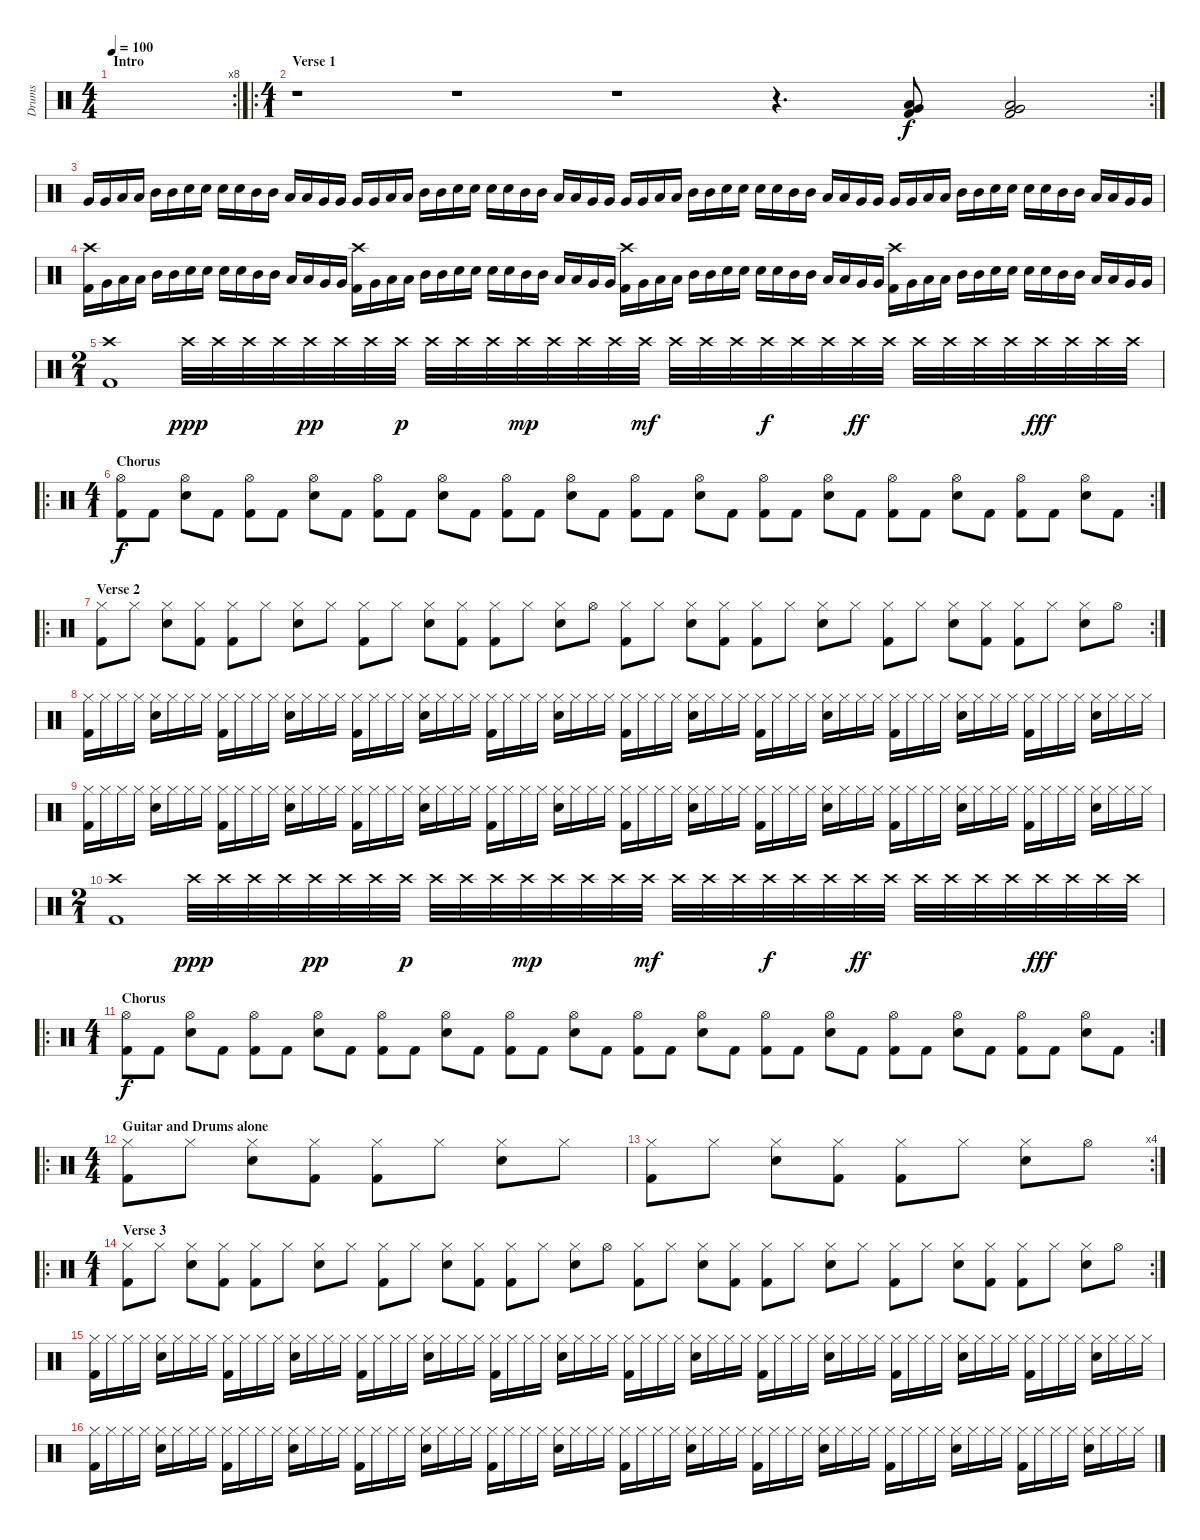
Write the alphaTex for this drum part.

\track ("Drums" "Drums") {instrument percussion}
\staff {score}
\articulation defaults
\rc 8
\ts (4 4)
\section ("" "Intro")
\tempo 100
\clef neutral
\ks c
|
\ro
\rc 2
\ts (4 1)
\section ("" "Verse 1")
r.1 r.1 r.1 r.4{d} ("Kick (hit) 2" "Very Low Tom (hit)" "Low Floor Tom (hit)").8 ("Kick (hit) 2" "Very Low Tom (hit)" "Low Floor Tom (hit)").2 |
"Very Low Tom (hit)".16 "Very Low Tom (hit)".16 "Low Tom (hit)".16 "Low Tom (hit)".16 "Mid Tom (hit)".16 "Mid Tom (hit)".16 "Electric Snare (hit)".16 "Electric Snare (hit)".16 "Electric Snare (hit)".16 "Electric Snare (hit)".16 "Mid Tom (hit)".16 "Mid Tom (hit)".16 "Low Tom (hit)".16 "Low Tom (hit)".16 "Very Low Tom (hit)".16 "Very Low Tom (hit)".16 "Very Low Tom (hit)".16 "Very Low Tom (hit)".16 "Low Tom (hit)".16 "Low Tom (hit)".16 "Mid Tom (hit)".16 "Mid Tom (hit)".16 "Electric Snare (hit)".16 "Electric Snare (hit)".16 "Electric Snare (hit)".16 "Electric Snare (hit)".16 "Mid Tom (hit)".16 "Mid Tom (hit)".16 "Low Tom (hit)".16 "Low Tom (hit)".16 "Very Low Tom (hit)".16 "Very Low Tom (hit)".16 "Very Low Tom (hit)".16 "Very Low Tom (hit)".16 "Low Tom (hit)".16 "Low Tom (hit)".16 "Mid Tom (hit)".16 "Mid Tom (hit)".16 "Electric Snare (hit)".16 "Electric Snare (hit)".16 "Electric Snare (hit)".16 "Electric Snare (hit)".16 "Mid Tom (hit)".16 "Mid Tom (hit)".16 "Low Tom (hit)".16 "Low Tom (hit)".16 "Very Low Tom (hit)".16 "Very Low Tom (hit)".16 "Very Low Tom (hit)".16 "Very Low Tom (hit)".16 "Low Tom (hit)".16 "Low Tom (hit)".16 "Mid Tom (hit)".16 "Mid Tom (hit)".16 "Electric Snare (hit)".16 "Electric Snare (hit)".16 "Electric Snare (hit)".16 "Electric Snare (hit)".16 "Mid Tom (hit)".16 "Mid Tom (hit)".16 "Low Tom (hit)".16 "Low Tom (hit)".16 "Very Low Tom (hit)".16 "Very Low Tom (hit)".16 |
("Crash high (hit)" "Kick (hit) 2").16 "Very Low Tom (hit)".16 "Low Tom (hit)".16 "Low Tom (hit)".16 "Mid Tom (hit)".16 "Mid Tom (hit)".16 "Electric Snare (hit)".16 "Electric Snare (hit)".16 "Electric Snare (hit)".16 "Electric Snare (hit)".16 "Mid Tom (hit)".16 "Mid Tom (hit)".16 "Low Tom (hit)".16 "Low Tom (hit)".16 "Very Low Tom (hit)".16 "Very Low Tom (hit)".16 ("Crash high (hit)" "Kick (hit) 2").16 "Very Low Tom (hit)".16 "Low Tom (hit)".16 "Low Tom (hit)".16 "Mid Tom (hit)".16 "Mid Tom (hit)".16 "Electric Snare (hit)".16 "Electric Snare (hit)".16 "Electric Snare (hit)".16 "Electric Snare (hit)".16 "Mid Tom (hit)".16 "Mid Tom (hit)".16 "Low Tom (hit)".16 "Low Tom (hit)".16 "Very Low Tom (hit)".16 "Very Low Tom (hit)".16 ("Crash high (hit)" "Kick (hit) 2").16 "Very Low Tom (hit)".16 "Low Tom (hit)".16 "Low Tom (hit)".16 "Mid Tom (hit)".16 "Mid Tom (hit)".16 "Electric Snare (hit)".16 "Electric Snare (hit)".16 "Electric Snare (hit)".16 "Electric Snare (hit)".16 "Mid Tom (hit)".16 "Mid Tom (hit)".16 "Low Tom (hit)".16 "Low Tom (hit)".16 "Very Low Tom (hit)".16 "Very Low Tom (hit)".16 ("Crash high (hit)" "Kick (hit) 2").16 "Very Low Tom (hit)".16 "Low Tom (hit)".16 "Low Tom (hit)".16 "Mid Tom (hit)".16 "Mid Tom (hit)".16 "Electric Snare (hit)".16 "Electric Snare (hit)".16 "Electric Snare (hit)".16 "Electric Snare (hit)".16 "Mid Tom (hit)".16 "Mid Tom (hit)".16 "Low Tom (hit)".16 "Low Tom (hit)".16 "Very Low Tom (hit)".16 "Very Low Tom (hit)".16 |
\ts (2 1)
("Crash high (hit)" "Kick (hit) 2").1 "Crash high (hit)".32{dy ppp} "Crash high (hit)".32 "Crash high (hit)".32 "Crash high (hit)".32 "Crash high (hit)".32{dy pp} "Crash high (hit)".32 "Crash high (hit)".32 "Crash high (hit)".32{dy p} "Crash high (hit)".32 "Crash high (hit)".32 "Crash high (hit)".32 "Crash high (hit)".32{dy mp} "Crash high (hit)".32 "Crash high (hit)".32 "Crash high (hit)".32 "Crash high (hit)".32{dy mf} "Crash high (hit)".32 "Crash high (hit)".32 "Crash high (hit)".32 "Crash high (hit)".32{dy f} "Crash high (hit)".32 "Crash high (hit)".32 "Crash high (hit)".32{dy ff} "Crash high (hit)".32 "Crash high (hit)".32 "Crash high (hit)".32 "Crash high (hit)".32 "Crash high (hit)".32 "Crash high (hit)".32{dy fff} "Crash high (hit)".32 "Crash high (hit)".32 "Crash high (hit)".32 |
\ro
\rc 2
\ts (4 1)
\section ("" "Chorus")
("Hi-Hat (open)" "Kick (hit) 2").8{dy f} "Kick (hit) 2".8 ("Hi-Hat (open)" "Electric Snare (hit)").8 "Kick (hit) 2".8 ("Hi-Hat (open)" "Kick (hit) 2").8 "Kick (hit) 2".8 ("Hi-Hat (open)" "Electric Snare (hit)").8 "Kick (hit) 2".8 ("Hi-Hat (open)" "Kick (hit) 2").8 "Kick (hit) 2".8 ("Hi-Hat (open)" "Electric Snare (hit)").8 "Kick (hit) 2".8 ("Hi-Hat (open)" "Kick (hit) 2").8 "Kick (hit) 2".8 ("Hi-Hat (open)" "Electric Snare (hit)").8 "Kick (hit) 2".8 ("Hi-Hat (open)" "Kick (hit) 2").8 "Kick (hit) 2".8 ("Hi-Hat (open)" "Electric Snare (hit)").8 "Kick (hit) 2".8 ("Hi-Hat (open)" "Kick (hit) 2").8 "Kick (hit) 2".8 ("Hi-Hat (open)" "Electric Snare (hit)").8 "Kick (hit) 2".8 ("Hi-Hat (open)" "Kick (hit) 2").8 "Kick (hit) 2".8 ("Hi-Hat (open)" "Electric Snare (hit)").8 "Kick (hit) 2".8 ("Hi-Hat (open)" "Kick (hit) 2").8 "Kick (hit) 2".8 ("Hi-Hat (open)" "Electric Snare (hit)").8 "Kick (hit) 2".8 |
\ro
\rc 2
\section ("" "Verse 2")
("Hi-Hat (closed)" "Kick (hit) 2").8 "Hi-Hat (closed)".8 ("Hi-Hat (closed)" "Electric Snare (hit)").8 ("Hi-Hat (closed)" "Kick (hit) 2").8 ("Hi-Hat (closed)" "Kick (hit) 2").8 "Hi-Hat (closed)".8 ("Hi-Hat (closed)" "Electric Snare (hit)").8 "Hi-Hat (closed)".8 ("Hi-Hat (closed)" "Kick (hit) 2").8 "Hi-Hat (closed)".8 ("Hi-Hat (closed)" "Electric Snare (hit)").8 ("Hi-Hat (closed)" "Kick (hit) 2").8 ("Hi-Hat (closed)" "Kick (hit) 2").8 "Hi-Hat (closed)".8 ("Hi-Hat (closed)" "Electric Snare (hit)").8 "Hi-Hat (open)".8 ("Hi-Hat (closed)" "Kick (hit) 2").8 "Hi-Hat (closed)".8 ("Hi-Hat (closed)" "Electric Snare (hit)").8 ("Hi-Hat (closed)" "Kick (hit) 2").8 ("Hi-Hat (closed)" "Kick (hit) 2").8 "Hi-Hat (closed)".8 ("Hi-Hat (closed)" "Electric Snare (hit)").8 "Hi-Hat (closed)".8 ("Hi-Hat (closed)" "Kick (hit) 2").8 "Hi-Hat (closed)".8 ("Hi-Hat (closed)" "Electric Snare (hit)").8 ("Hi-Hat (closed)" "Kick (hit) 2").8 ("Hi-Hat (closed)" "Kick (hit) 2").8 "Hi-Hat (closed)".8 ("Hi-Hat (closed)" "Electric Snare (hit)").8 "Hi-Hat (open)".8 |
("Hi-Hat (closed)" "Kick (hit) 2").16 "Hi-Hat (closed)".16 "Hi-Hat (closed)".16 "Hi-Hat (closed)".16 ("Hi-Hat (closed)" "Electric Snare (hit)").16 "Hi-Hat (closed)".16 "Hi-Hat (closed)".16 "Hi-Hat (closed)".16 ("Hi-Hat (closed)" "Kick (hit) 2").16 "Hi-Hat (closed)".16 "Hi-Hat (closed)".16 "Hi-Hat (closed)".16 ("Hi-Hat (closed)" "Electric Snare (hit)").16 "Hi-Hat (closed)".16 "Hi-Hat (closed)".16 "Hi-Hat (closed)".16 ("Hi-Hat (closed)" "Kick (hit) 2").16 "Hi-Hat (closed)".16 "Hi-Hat (closed)".16 "Hi-Hat (closed)".16 ("Hi-Hat (closed)" "Electric Snare (hit)").16 "Hi-Hat (closed)".16 "Hi-Hat (closed)".16 "Hi-Hat (closed)".16 ("Hi-Hat (closed)" "Kick (hit) 2").16 "Hi-Hat (closed)".16 "Hi-Hat (closed)".16 "Hi-Hat (closed)".16 ("Hi-Hat (closed)" "Electric Snare (hit)").16 "Hi-Hat (closed)".16 "Hi-Hat (closed)".16 "Hi-Hat (closed)".16 ("Hi-Hat (closed)" "Kick (hit) 2").16 "Hi-Hat (closed)".16 "Hi-Hat (closed)".16 "Hi-Hat (closed)".16 ("Hi-Hat (closed)" "Electric Snare (hit)").16 "Hi-Hat (closed)".16 "Hi-Hat (closed)".16 "Hi-Hat (closed)".16 ("Hi-Hat (closed)" "Kick (hit) 2").16 "Hi-Hat (closed)".16 "Hi-Hat (closed)".16 "Hi-Hat (closed)".16 ("Hi-Hat (closed)" "Electric Snare (hit)").16 "Hi-Hat (closed)".16 "Hi-Hat (closed)".16 "Hi-Hat (closed)".16 ("Hi-Hat (closed)" "Kick (hit) 2").16 "Hi-Hat (closed)".16 "Hi-Hat (closed)".16 "Hi-Hat (closed)".16 ("Hi-Hat (closed)" "Electric Snare (hit)").16 "Hi-Hat (closed)".16 "Hi-Hat (closed)".16 "Hi-Hat (closed)".16 ("Hi-Hat (closed)" "Kick (hit) 2").16 "Hi-Hat (closed)".16 "Hi-Hat (closed)".16 "Hi-Hat (closed)".16 ("Hi-Hat (closed)" "Electric Snare (hit)").16 "Hi-Hat (closed)".16 "Hi-Hat (closed)".16 "Hi-Hat (closed)".16 |
("Hi-Hat (closed)" "Kick (hit) 2").16 "Hi-Hat (closed)".16 "Hi-Hat (closed)".16 "Hi-Hat (closed)".16 ("Hi-Hat (closed)" "Electric Snare (hit)").16 "Hi-Hat (closed)".16 "Hi-Hat (closed)".16 "Hi-Hat (closed)".16 ("Hi-Hat (closed)" "Kick (hit) 2").16 "Hi-Hat (closed)".16 "Hi-Hat (closed)".16 "Hi-Hat (closed)".16 ("Hi-Hat (closed)" "Electric Snare (hit)").16 "Hi-Hat (closed)".16 "Hi-Hat (closed)".16 "Hi-Hat (closed)".16 ("Hi-Hat (closed)" "Kick (hit) 2").16 "Hi-Hat (closed)".16 "Hi-Hat (closed)".16 "Hi-Hat (closed)".16 ("Hi-Hat (closed)" "Electric Snare (hit)").16 "Hi-Hat (closed)".16 "Hi-Hat (closed)".16 "Hi-Hat (closed)".16 ("Hi-Hat (closed)" "Kick (hit) 2").16 "Hi-Hat (closed)".16 "Hi-Hat (closed)".16 "Hi-Hat (closed)".16 ("Hi-Hat (closed)" "Electric Snare (hit)").16 "Hi-Hat (closed)".16 "Hi-Hat (closed)".16 "Hi-Hat (closed)".16 ("Hi-Hat (closed)" "Kick (hit) 2").16 "Hi-Hat (closed)".16 "Hi-Hat (closed)".16 "Hi-Hat (closed)".16 ("Hi-Hat (closed)" "Electric Snare (hit)").16 "Hi-Hat (closed)".16 "Hi-Hat (closed)".16 "Hi-Hat (closed)".16 ("Hi-Hat (closed)" "Kick (hit) 2").16 "Hi-Hat (closed)".16 "Hi-Hat (closed)".16 "Hi-Hat (closed)".16 ("Hi-Hat (closed)" "Electric Snare (hit)").16 "Hi-Hat (closed)".16 "Hi-Hat (closed)".16 "Hi-Hat (closed)".16 ("Hi-Hat (closed)" "Kick (hit) 2").16 "Hi-Hat (closed)".16 "Hi-Hat (closed)".16 "Hi-Hat (closed)".16 ("Hi-Hat (closed)" "Electric Snare (hit)").16 "Hi-Hat (closed)".16 "Hi-Hat (closed)".16 "Hi-Hat (closed)".16 ("Hi-Hat (closed)" "Kick (hit) 2").16 "Hi-Hat (closed)".16 "Hi-Hat (closed)".16 "Hi-Hat (closed)".16 ("Hi-Hat (closed)" "Electric Snare (hit)").16 "Hi-Hat (closed)".16 "Hi-Hat (closed)".16 "Hi-Hat (closed)".16 |
\ts (2 1)
("Crash high (hit)" "Kick (hit) 2").1 "Crash high (hit)".32{dy ppp} "Crash high (hit)".32 "Crash high (hit)".32 "Crash high (hit)".32 "Crash high (hit)".32{dy pp} "Crash high (hit)".32 "Crash high (hit)".32 "Crash high (hit)".32{dy p} "Crash high (hit)".32 "Crash high (hit)".32 "Crash high (hit)".32 "Crash high (hit)".32{dy mp} "Crash high (hit)".32 "Crash high (hit)".32 "Crash high (hit)".32 "Crash high (hit)".32{dy mf} "Crash high (hit)".32 "Crash high (hit)".32 "Crash high (hit)".32 "Crash high (hit)".32{dy f} "Crash high (hit)".32 "Crash high (hit)".32 "Crash high (hit)".32{dy ff} "Crash high (hit)".32 "Crash high (hit)".32 "Crash high (hit)".32 "Crash high (hit)".32 "Crash high (hit)".32 "Crash high (hit)".32{dy fff} "Crash high (hit)".32 "Crash high (hit)".32 "Crash high (hit)".32 |
\ro
\rc 2
\ts (4 1)
\section ("" "Chorus")
("Hi-Hat (open)" "Kick (hit) 2").8{dy f} "Kick (hit) 2".8 ("Hi-Hat (open)" "Electric Snare (hit)").8 "Kick (hit) 2".8 ("Hi-Hat (open)" "Kick (hit) 2").8 "Kick (hit) 2".8 ("Hi-Hat (open)" "Electric Snare (hit)").8 "Kick (hit) 2".8 ("Hi-Hat (open)" "Kick (hit) 2").8 "Kick (hit) 2".8 ("Hi-Hat (open)" "Electric Snare (hit)").8 "Kick (hit) 2".8 ("Hi-Hat (open)" "Kick (hit) 2").8 "Kick (hit) 2".8 ("Hi-Hat (open)" "Electric Snare (hit)").8 "Kick (hit) 2".8 ("Hi-Hat (open)" "Kick (hit) 2").8 "Kick (hit) 2".8 ("Hi-Hat (open)" "Electric Snare (hit)").8 "Kick (hit) 2".8 ("Hi-Hat (open)" "Kick (hit) 2").8 "Kick (hit) 2".8 ("Hi-Hat (open)" "Electric Snare (hit)").8 "Kick (hit) 2".8 ("Hi-Hat (open)" "Kick (hit) 2").8 "Kick (hit) 2".8 ("Hi-Hat (open)" "Electric Snare (hit)").8 "Kick (hit) 2".8 ("Hi-Hat (open)" "Kick (hit) 2").8 "Kick (hit) 2".8 ("Hi-Hat (open)" "Electric Snare (hit)").8 "Kick (hit) 2".8 |
\ro
\ts (4 4)
\section ("" "Guitar and Drums alone")
("Hi-Hat (closed)" "Kick (hit) 2").8 "Hi-Hat (closed)".8 ("Hi-Hat (closed)" "Electric Snare (hit)").8 ("Hi-Hat (closed)" "Kick (hit) 2").8 ("Hi-Hat (closed)" "Kick (hit) 2").8 "Hi-Hat (closed)".8 ("Hi-Hat (closed)" "Electric Snare (hit)").8 "Hi-Hat (closed)".8 |
\rc 4
("Hi-Hat (closed)" "Kick (hit) 2").8 "Hi-Hat (closed)".8 ("Hi-Hat (closed)" "Electric Snare (hit)").8 ("Hi-Hat (closed)" "Kick (hit) 2").8 ("Hi-Hat (closed)" "Kick (hit) 2").8 "Hi-Hat (closed)".8 ("Hi-Hat (closed)" "Electric Snare (hit)").8 "Hi-Hat (open)".8 |
\ro
\rc 2
\ts (4 1)
\section ("" "Verse 3")
("Hi-Hat (closed)" "Kick (hit) 2").8 "Hi-Hat (closed)".8 ("Hi-Hat (closed)" "Electric Snare (hit)").8 ("Hi-Hat (closed)" "Kick (hit) 2").8 ("Hi-Hat (closed)" "Kick (hit) 2").8 "Hi-Hat (closed)".8 ("Hi-Hat (closed)" "Electric Snare (hit)").8 "Hi-Hat (closed)".8 ("Hi-Hat (closed)" "Kick (hit) 2").8 "Hi-Hat (closed)".8 ("Hi-Hat (closed)" "Electric Snare (hit)").8 ("Hi-Hat (closed)" "Kick (hit) 2").8 ("Hi-Hat (closed)" "Kick (hit) 2").8 "Hi-Hat (closed)".8 ("Hi-Hat (closed)" "Electric Snare (hit)").8 "Hi-Hat (open)".8 ("Hi-Hat (closed)" "Kick (hit) 2").8 "Hi-Hat (closed)".8 ("Hi-Hat (closed)" "Electric Snare (hit)").8 ("Hi-Hat (closed)" "Kick (hit) 2").8 ("Hi-Hat (closed)" "Kick (hit) 2").8 "Hi-Hat (closed)".8 ("Hi-Hat (closed)" "Electric Snare (hit)").8 "Hi-Hat (closed)".8 ("Hi-Hat (closed)" "Kick (hit) 2").8 "Hi-Hat (closed)".8 ("Hi-Hat (closed)" "Electric Snare (hit)").8 ("Hi-Hat (closed)" "Kick (hit) 2").8 ("Hi-Hat (closed)" "Kick (hit) 2").8 "Hi-Hat (closed)".8 ("Hi-Hat (closed)" "Electric Snare (hit)").8 "Hi-Hat (open)".8 |
("Hi-Hat (closed)" "Kick (hit) 2").16 "Hi-Hat (closed)".16 "Hi-Hat (closed)".16 "Hi-Hat (closed)".16 ("Hi-Hat (closed)" "Electric Snare (hit)").16 "Hi-Hat (closed)".16 "Hi-Hat (closed)".16 "Hi-Hat (closed)".16 ("Hi-Hat (closed)" "Kick (hit) 2").16 "Hi-Hat (closed)".16 "Hi-Hat (closed)".16 "Hi-Hat (closed)".16 ("Hi-Hat (closed)" "Electric Snare (hit)").16 "Hi-Hat (closed)".16 "Hi-Hat (closed)".16 "Hi-Hat (closed)".16 ("Hi-Hat (closed)" "Kick (hit) 2").16 "Hi-Hat (closed)".16 "Hi-Hat (closed)".16 "Hi-Hat (closed)".16 ("Hi-Hat (closed)" "Electric Snare (hit)").16 "Hi-Hat (closed)".16 "Hi-Hat (closed)".16 "Hi-Hat (closed)".16 ("Hi-Hat (closed)" "Kick (hit) 2").16 "Hi-Hat (closed)".16 "Hi-Hat (closed)".16 "Hi-Hat (closed)".16 ("Hi-Hat (closed)" "Electric Snare (hit)").16 "Hi-Hat (closed)".16 "Hi-Hat (closed)".16 "Hi-Hat (closed)".16 ("Hi-Hat (closed)" "Kick (hit) 2").16 "Hi-Hat (closed)".16 "Hi-Hat (closed)".16 "Hi-Hat (closed)".16 ("Hi-Hat (closed)" "Electric Snare (hit)").16 "Hi-Hat (closed)".16 "Hi-Hat (closed)".16 "Hi-Hat (closed)".16 ("Hi-Hat (closed)" "Kick (hit) 2").16 "Hi-Hat (closed)".16 "Hi-Hat (closed)".16 "Hi-Hat (closed)".16 ("Hi-Hat (closed)" "Electric Snare (hit)").16 "Hi-Hat (closed)".16 "Hi-Hat (closed)".16 "Hi-Hat (closed)".16 ("Hi-Hat (closed)" "Kick (hit) 2").16 "Hi-Hat (closed)".16 "Hi-Hat (closed)".16 "Hi-Hat (closed)".16 ("Hi-Hat (closed)" "Electric Snare (hit)").16 "Hi-Hat (closed)".16 "Hi-Hat (closed)".16 "Hi-Hat (closed)".16 ("Hi-Hat (closed)" "Kick (hit) 2").16 "Hi-Hat (closed)".16 "Hi-Hat (closed)".16 "Hi-Hat (closed)".16 ("Hi-Hat (closed)" "Electric Snare (hit)").16 "Hi-Hat (closed)".16 "Hi-Hat (closed)".16 "Hi-Hat (closed)".16 |
("Hi-Hat (closed)" "Kick (hit) 2").16 "Hi-Hat (closed)".16 "Hi-Hat (closed)".16 "Hi-Hat (closed)".16 ("Hi-Hat (closed)" "Electric Snare (hit)").16 "Hi-Hat (closed)".16 "Hi-Hat (closed)".16 "Hi-Hat (closed)".16 ("Hi-Hat (closed)" "Kick (hit) 2").16 "Hi-Hat (closed)".16 "Hi-Hat (closed)".16 "Hi-Hat (closed)".16 ("Hi-Hat (closed)" "Electric Snare (hit)").16 "Hi-Hat (closed)".16 "Hi-Hat (closed)".16 "Hi-Hat (closed)".16 ("Hi-Hat (closed)" "Kick (hit) 2").16 "Hi-Hat (closed)".16 "Hi-Hat (closed)".16 "Hi-Hat (closed)".16 ("Hi-Hat (closed)" "Electric Snare (hit)").16 "Hi-Hat (closed)".16 "Hi-Hat (closed)".16 "Hi-Hat (closed)".16 ("Hi-Hat (closed)" "Kick (hit) 2").16 "Hi-Hat (closed)".16 "Hi-Hat (closed)".16 "Hi-Hat (closed)".16 ("Hi-Hat (closed)" "Electric Snare (hit)").16 "Hi-Hat (closed)".16 "Hi-Hat (closed)".16 "Hi-Hat (closed)".16 ("Hi-Hat (closed)" "Kick (hit) 2").16 "Hi-Hat (closed)".16 "Hi-Hat (closed)".16 "Hi-Hat (closed)".16 ("Hi-Hat (closed)" "Electric Snare (hit)").16 "Hi-Hat (closed)".16 "Hi-Hat (closed)".16 "Hi-Hat (closed)".16 ("Hi-Hat (closed)" "Kick (hit) 2").16 "Hi-Hat (closed)".16 "Hi-Hat (closed)".16 "Hi-Hat (closed)".16 ("Hi-Hat (closed)" "Electric Snare (hit)").16 "Hi-Hat (closed)".16 "Hi-Hat (closed)".16 "Hi-Hat (closed)".16 ("Hi-Hat (closed)" "Kick (hit) 2").16 "Hi-Hat (closed)".16 "Hi-Hat (closed)".16 "Hi-Hat (closed)".16 ("Hi-Hat (closed)" "Electric Snare (hit)").16 "Hi-Hat (closed)".16 "Hi-Hat (closed)".16 "Hi-Hat (closed)".16 ("Hi-Hat (closed)" "Kick (hit) 2").16 "Hi-Hat (closed)".16 "Hi-Hat (closed)".16 "Hi-Hat (closed)".16 ("Hi-Hat (closed)" "Electric Snare (hit)").16 "Hi-Hat (closed)".16 "Hi-Hat (closed)".16 "Hi-Hat (closed)".16
